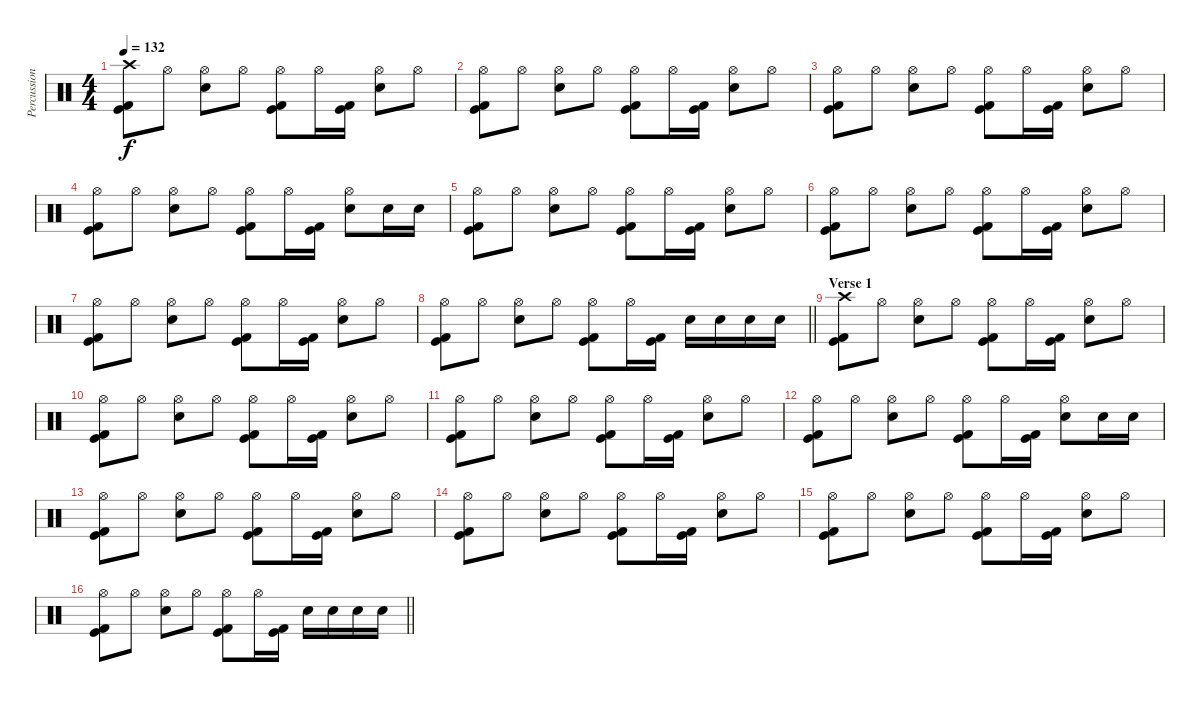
\track ("Percussion" "Percussion") {instrument percussion}
\staff {score}
\articulation defaults
\ts (4 4)
\section ("" "")
\tempo 132
\clef neutral
\ks c
("Crash high (hit)" "Kick (hit)" "Kick (hit) 2").8{dy f} "Hi-Hat (open)".8 ("Hi-Hat (open)" "Electric Snare (hit)").8 "Hi-Hat (open)".8 ("Hi-Hat (open)" "Kick (hit)" "Kick (hit) 2").8 "Hi-Hat (open)".16 ("Kick (hit)" "Kick (hit) 2").16 ("Hi-Hat (open)" "Electric Snare (hit)").8 "Hi-Hat (open)".8 |
("Hi-Hat (open)" "Kick (hit)" "Kick (hit) 2").8 "Hi-Hat (open)".8 ("Hi-Hat (open)" "Electric Snare (hit)").8 "Hi-Hat (open)".8 ("Hi-Hat (open)" "Kick (hit)" "Kick (hit) 2").8 "Hi-Hat (open)".16 ("Kick (hit)" "Kick (hit) 2").16 ("Hi-Hat (open)" "Electric Snare (hit)").8 "Hi-Hat (open)".8 |
("Hi-Hat (open)" "Kick (hit)" "Kick (hit) 2").8 "Hi-Hat (open)".8 ("Hi-Hat (open)" "Electric Snare (hit)").8 "Hi-Hat (open)".8 ("Hi-Hat (open)" "Kick (hit)" "Kick (hit) 2").8 "Hi-Hat (open)".16 ("Kick (hit)" "Kick (hit) 2").16 ("Hi-Hat (open)" "Electric Snare (hit)").8 "Hi-Hat (open)".8 |
("Hi-Hat (open)" "Kick (hit)" "Kick (hit) 2").8 "Hi-Hat (open)".8 ("Hi-Hat (open)" "Electric Snare (hit)").8 "Hi-Hat (open)".8 ("Hi-Hat (open)" "Kick (hit)" "Kick (hit) 2").8 "Hi-Hat (open)".16 ("Kick (hit)" "Kick (hit) 2").16 ("Hi-Hat (open)" "Electric Snare (hit)").8 "Electric Snare (hit)".16 "Electric Snare (hit)".16 |
("Hi-Hat (open)" "Kick (hit)" "Kick (hit) 2").8 "Hi-Hat (open)".8 ("Hi-Hat (open)" "Electric Snare (hit)").8 "Hi-Hat (open)".8 ("Hi-Hat (open)" "Kick (hit)" "Kick (hit) 2").8 "Hi-Hat (open)".16 ("Kick (hit)" "Kick (hit) 2").16 ("Hi-Hat (open)" "Electric Snare (hit)").8 "Hi-Hat (open)".8 |
("Hi-Hat (open)" "Kick (hit)" "Kick (hit) 2").8 "Hi-Hat (open)".8 ("Hi-Hat (open)" "Electric Snare (hit)").8 "Hi-Hat (open)".8 ("Hi-Hat (open)" "Kick (hit)" "Kick (hit) 2").8 "Hi-Hat (open)".16 ("Kick (hit)" "Kick (hit) 2").16 ("Hi-Hat (open)" "Electric Snare (hit)").8 "Hi-Hat (open)".8 |
("Hi-Hat (open)" "Kick (hit)" "Kick (hit) 2").8 "Hi-Hat (open)".8 ("Hi-Hat (open)" "Electric Snare (hit)").8 "Hi-Hat (open)".8 ("Hi-Hat (open)" "Kick (hit)" "Kick (hit) 2").8 "Hi-Hat (open)".16 ("Kick (hit)" "Kick (hit) 2").16 ("Hi-Hat (open)" "Electric Snare (hit)").8 "Hi-Hat (open)".8 |
\barLineRight lightlight
("Hi-Hat (open)" "Kick (hit)" "Kick (hit) 2").8 "Hi-Hat (open)".8 ("Hi-Hat (open)" "Electric Snare (hit)").8 "Hi-Hat (open)".8 ("Hi-Hat (open)" "Kick (hit)" "Kick (hit) 2").8 "Hi-Hat (open)".16 ("Kick (hit)" "Kick (hit) 2").16 "Electric Snare (hit)".16 "Electric Snare (hit)".16 "Electric Snare (hit)".16 "Electric Snare (hit)".16 |
\section ("" "Verse 1")
("Crash high (hit)" "Kick (hit)" "Kick (hit) 2").8 "Hi-Hat (open)".8 ("Hi-Hat (open)" "Electric Snare (hit)").8 "Hi-Hat (open)".8 ("Hi-Hat (open)" "Kick (hit)" "Kick (hit) 2").8 "Hi-Hat (open)".16 ("Kick (hit)" "Kick (hit) 2").16 ("Hi-Hat (open)" "Electric Snare (hit)").8 "Hi-Hat (open)".8 |
("Hi-Hat (open)" "Kick (hit)" "Kick (hit) 2").8 "Hi-Hat (open)".8 ("Hi-Hat (open)" "Electric Snare (hit)").8 "Hi-Hat (open)".8 ("Hi-Hat (open)" "Kick (hit)" "Kick (hit) 2").8 "Hi-Hat (open)".16 ("Kick (hit)" "Kick (hit) 2").16 ("Hi-Hat (open)" "Electric Snare (hit)").8 "Hi-Hat (open)".8 |
("Hi-Hat (open)" "Kick (hit)" "Kick (hit) 2").8 "Hi-Hat (open)".8 ("Hi-Hat (open)" "Electric Snare (hit)").8 "Hi-Hat (open)".8 ("Hi-Hat (open)" "Kick (hit)" "Kick (hit) 2").8 "Hi-Hat (open)".16 ("Kick (hit)" "Kick (hit) 2").16 ("Hi-Hat (open)" "Electric Snare (hit)").8 "Hi-Hat (open)".8 |
("Hi-Hat (open)" "Kick (hit)" "Kick (hit) 2").8 "Hi-Hat (open)".8 ("Hi-Hat (open)" "Electric Snare (hit)").8 "Hi-Hat (open)".8 ("Hi-Hat (open)" "Kick (hit)" "Kick (hit) 2").8 "Hi-Hat (open)".16 ("Kick (hit)" "Kick (hit) 2").16 ("Hi-Hat (open)" "Electric Snare (hit)").8 "Electric Snare (hit)".16 "Electric Snare (hit)".16 |
("Hi-Hat (open)" "Kick (hit)" "Kick (hit) 2").8 "Hi-Hat (open)".8 ("Hi-Hat (open)" "Electric Snare (hit)").8 "Hi-Hat (open)".8 ("Hi-Hat (open)" "Kick (hit)" "Kick (hit) 2").8 "Hi-Hat (open)".16 ("Kick (hit)" "Kick (hit) 2").16 ("Hi-Hat (open)" "Electric Snare (hit)").8 "Hi-Hat (open)".8 |
("Hi-Hat (open)" "Kick (hit)" "Kick (hit) 2").8 "Hi-Hat (open)".8 ("Hi-Hat (open)" "Electric Snare (hit)").8 "Hi-Hat (open)".8 ("Hi-Hat (open)" "Kick (hit)" "Kick (hit) 2").8 "Hi-Hat (open)".16 ("Kick (hit)" "Kick (hit) 2").16 ("Hi-Hat (open)" "Electric Snare (hit)").8 "Hi-Hat (open)".8 |
("Hi-Hat (open)" "Kick (hit)" "Kick (hit) 2").8 "Hi-Hat (open)".8 ("Hi-Hat (open)" "Electric Snare (hit)").8 "Hi-Hat (open)".8 ("Hi-Hat (open)" "Kick (hit)" "Kick (hit) 2").8 "Hi-Hat (open)".16 ("Kick (hit)" "Kick (hit) 2").16 ("Hi-Hat (open)" "Electric Snare (hit)").8 "Hi-Hat (open)".8 |
\barLineRight lightlight
("Hi-Hat (open)" "Kick (hit)" "Kick (hit) 2").8 "Hi-Hat (open)".8 ("Hi-Hat (open)" "Electric Snare (hit)").8 "Hi-Hat (open)".8 ("Hi-Hat (open)" "Kick (hit)" "Kick (hit) 2").8 "Hi-Hat (open)".16 ("Kick (hit)" "Kick (hit) 2").16 "Electric Snare (hit)".16 "Electric Snare (hit)".16 "Electric Snare (hit)".16 "Electric Snare (hit)".16
